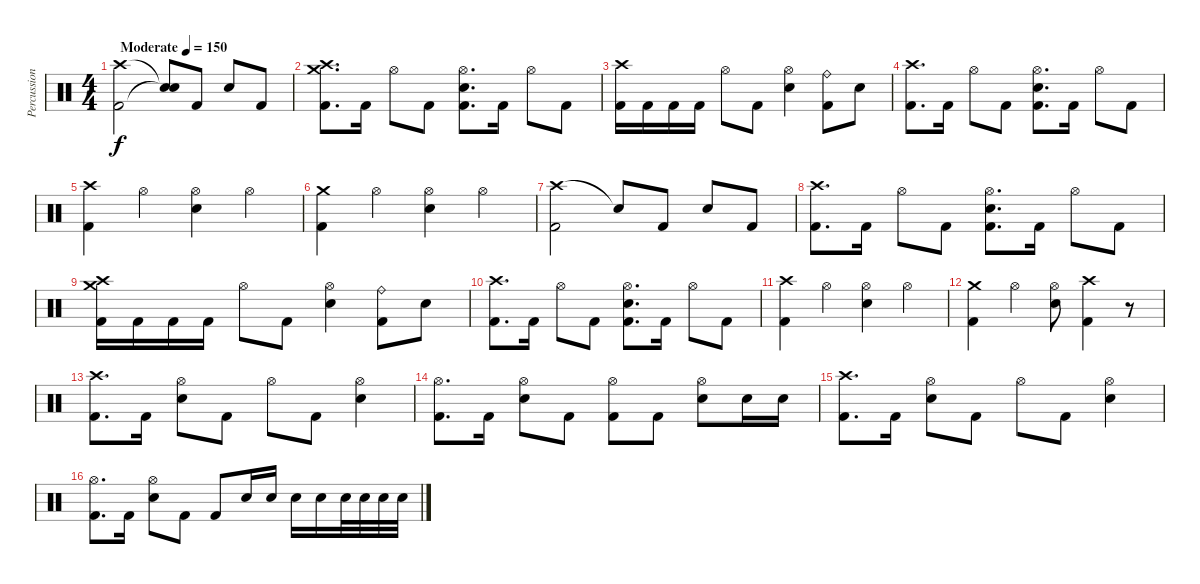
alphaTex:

\track ("Percussion" "Percussion") {instrument percussion}
\staff {score}
\articulation defaults
\ts (4 4)
\tempo (150 "Moderate")
\clef neutral
\ks c
("Crash high (hit)" "Kick (hit) 2").2{dy f} ("Snare (hit)"{t} "Snare (hit)"{t}).8 "Kick (hit) 2".8 "Electric Snare (hit)".8 "Kick (hit) 2".8 |
("Crash high (hit)" "Crash medium (hit)" "Kick (hit) 2").8{d} "Kick (hit) 2".16 "Hi-Hat (open)".8 "Kick (hit) 2".8 ("Hi-Hat (open)" "Electric Snare (hit)" "Kick (hit) 2").8{d} "Kick (hit) 2".16 "Hi-Hat (open)".8 "Kick (hit) 2".8 |
("Crash high (hit)" "Kick (hit) 2").16 "Kick (hit) 2".16 "Kick (hit) 2".16 "Kick (hit) 2".16 "Hi-Hat (open)".8 "Kick (hit) 2".8 ("Hi-Hat (open)" "Electric Snare (hit)").4 ("Ride (bell)" "Kick (hit) 2").8 "Electric Snare (hit)".8 |
("Crash high (hit)" "Kick (hit) 2").8{d} "Kick (hit) 2".16 "Hi-Hat (open)".8 "Kick (hit) 2".8 ("Hi-Hat (open)" "Electric Snare (hit)" "Kick (hit) 2").8{d} "Kick (hit) 2".16 "Hi-Hat (open)".8 "Kick (hit) 2".8 |
("Crash high (hit)" "Kick (hit) 2").4 "Hi-Hat (open)".4 ("Hi-Hat (open)" "Electric Snare (hit)").4 "Hi-Hat (open)".4 |
("Crash medium (hit)" "Kick (hit) 2").4 "Hi-Hat (open)".4 ("Hi-Hat (open)" "Electric Snare (hit)").4 "Hi-Hat (open)".4 |
("Crash high (hit)" "Kick (hit) 2").2 "Snare (hit)"{t}.8 "Kick (hit) 2".8 "Electric Snare (hit)".8 "Kick (hit) 2".8 |
("Crash high (hit)" "Kick (hit) 2").8{d} "Kick (hit) 2".16 "Hi-Hat (open)".8 "Kick (hit) 2".8 ("Hi-Hat (open)" "Electric Snare (hit)" "Kick (hit) 2").8{d} "Kick (hit) 2".16 "Hi-Hat (open)".8 "Kick (hit) 2".8 |
("Crash high (hit)" "Crash medium (hit)" "Kick (hit) 2").16 "Kick (hit) 2".16 "Kick (hit) 2".16 "Kick (hit) 2".16 "Hi-Hat (open)".8 "Kick (hit) 2".8 ("Hi-Hat (open)" "Electric Snare (hit)").4 ("Ride (bell)" "Kick (hit) 2").8 "Electric Snare (hit)".8 |
("Crash high (hit)" "Kick (hit) 2").8{d} "Kick (hit) 2".16 "Hi-Hat (open)".8 "Kick (hit) 2".8 ("Hi-Hat (open)" "Electric Snare (hit)" "Kick (hit) 2").8{d} "Kick (hit) 2".16 "Hi-Hat (open)".8 "Kick (hit) 2".8 |
("Crash high (hit)" "Kick (hit) 2").4 "Hi-Hat (open)".4 ("Hi-Hat (open)" "Electric Snare (hit)").4 "Hi-Hat (open)".4 |
("Crash medium (hit)" "Kick (hit) 2").4 "Hi-Hat (open)".4 ("Hi-Hat (open)" "Electric Snare (hit)").8 ("Crash high (hit)" "Kick (hit) 2").4 r.8 |
("Crash high (hit)" "Kick (hit) 2").8{d} "Kick (hit) 2".16 ("Hi-Hat (open)" "Electric Snare (hit)").8 "Kick (hit) 2".8 "Hi-Hat (open)".8 "Kick (hit) 2".8 ("Hi-Hat (open)" "Electric Snare (hit)").4 |
("Hi-Hat (open)" "Kick (hit) 2").8{d} "Kick (hit) 2".16 ("Hi-Hat (open)" "Electric Snare (hit)").8 "Kick (hit) 2".8 ("Hi-Hat (open)" "Kick (hit) 2").8 "Kick (hit) 2".8 ("Hi-Hat (open)" "Electric Snare (hit)").8 "Electric Snare (hit)".16 "Electric Snare (hit)".16 |
("Crash high (hit)" "Kick (hit) 2").8{d} "Kick (hit) 2".16 ("Hi-Hat (open)" "Electric Snare (hit)").8 "Kick (hit) 2".8 "Hi-Hat (open)".8 "Kick (hit) 2".8 ("Hi-Hat (open)" "Electric Snare (hit)").4 |
("Hi-Hat (open)" "Kick (hit) 2").8{d} "Kick (hit) 2".16 ("Hi-Hat (open)" "Electric Snare (hit)").8 "Kick (hit) 2".8 "Kick (hit) 2".8 "Electric Snare (hit)".16 "Electric Snare (hit)".16 "Electric Snare (hit)".16 "Electric Snare (hit)".16 "Electric Snare (hit)".32 "Electric Snare (hit)".32 "Electric Snare (hit)".32 "Electric Snare (hit)".32
